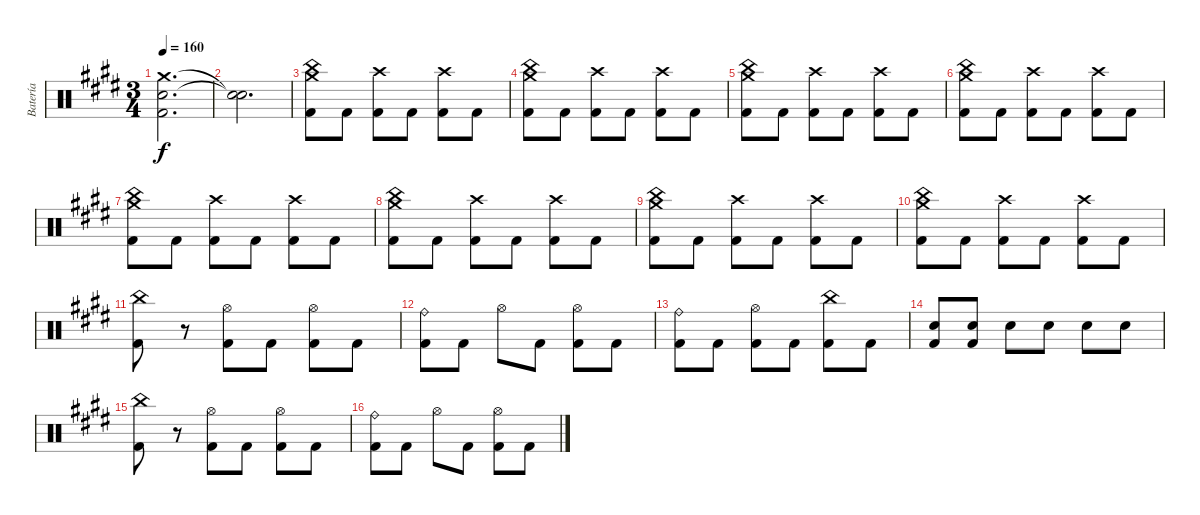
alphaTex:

\track ("Batería" "Batería") {instrument percussion}
\staff {score}
\articulation defaults
\ts (3 4)
\tempo 160
\clef neutral
\ks c#minor
("Crash medium (hit)"{t} "Snare (hit) 2"{t} "Kick (hit) 2"{t}).2{d dy f} |
("Snare (hit)"{t} "Snare (hit)"{t}).2{d} |
("Crash medium (hit)" "China (hit)" "Kick (hit) 2").8 "Kick (hit) 2".8 ("Crash high (hit)" "Kick (hit) 2").8 "Kick (hit) 2".8 ("Crash high (hit)" "Kick (hit) 2").8 "Kick (hit) 2".8 |
("Crash medium (hit)" "China (hit)" "Kick (hit) 2").8 "Kick (hit) 2".8 ("Crash high (hit)" "Kick (hit) 2").8 "Kick (hit) 2".8 ("Crash high (hit)" "Kick (hit) 2").8 "Kick (hit) 2".8 |
("Crash medium (hit)" "China (hit)" "Kick (hit) 2").8 "Kick (hit) 2".8 ("Crash high (hit)" "Kick (hit) 2").8 "Kick (hit) 2".8 ("Crash high (hit)" "Kick (hit) 2").8 "Kick (hit) 2".8 |
("Crash medium (hit)" "China (hit)" "Kick (hit) 2").8 "Kick (hit) 2".8 ("Crash high (hit)" "Kick (hit) 2").8 "Kick (hit) 2".8 ("Crash high (hit)" "Kick (hit) 2").8 "Kick (hit) 2".8 |
("Crash medium (hit)" "China (hit)" "Kick (hit) 2").8 "Kick (hit) 2".8 ("Crash high (hit)" "Kick (hit) 2").8 "Kick (hit) 2".8 ("Crash high (hit)" "Kick (hit) 2").8 "Kick (hit) 2".8 |
("Crash medium (hit)" "China (hit)" "Kick (hit) 2").8 "Kick (hit) 2".8 ("Crash high (hit)" "Kick (hit) 2").8 "Kick (hit) 2".8 ("Crash high (hit)" "Kick (hit) 2").8 "Kick (hit) 2".8 |
("Crash medium (hit)" "China (hit)" "Kick (hit) 2").8 "Kick (hit) 2".8 ("Crash high (hit)" "Kick (hit) 2").8 "Kick (hit) 2".8 ("Crash high (hit)" "Kick (hit) 2").8 "Kick (hit) 2".8 |
("Crash medium (hit)" "China (hit)" "Kick (hit) 2").8 "Kick (hit) 2".8 ("Crash high (hit)" "Kick (hit) 2").8 "Kick (hit) 2".8 ("Crash high (hit)" "Kick (hit) 2").8 "Kick (hit) 2".8 |
("China (hit)" "Kick (hit) 2").8 r.8 ("Hi-Hat (open)" "Kick (hit) 2").8 "Kick (hit) 2".8 ("Hi-Hat (open)" "Kick (hit) 2").8 "Kick (hit) 2".8 |
("Ride (bell)" "Kick (hit) 2").8 "Kick (hit) 2".8 "Hi-Hat (open)".8 "Kick (hit) 2".8 ("Hi-Hat (open)" "Kick (hit) 2").8 "Kick (hit) 2".8 |
("Ride (bell)" "Kick (hit) 2").8 "Kick (hit) 2".8 ("Hi-Hat (open)" "Kick (hit) 2").8 "Kick (hit) 2".8 ("China (hit)" "Kick (hit) 2").8 "Kick (hit) 2".8 |
("Snare (hit) 2" "Kick (hit) 2").8 ("Snare (hit) 2" "Kick (hit) 2").8 "Snare (hit) 2".8 "Snare (hit) 2".8 "Snare (hit) 2".8 "Snare (hit) 2".8 |
("China (hit)" "Kick (hit) 2").8 r.8 ("Hi-Hat (open)" "Kick (hit) 2").8 "Kick (hit) 2".8 ("Hi-Hat (open)" "Kick (hit) 2").8 "Kick (hit) 2".8 |
("Ride (bell)" "Kick (hit) 2").8 "Kick (hit) 2".8 "Hi-Hat (open)".8 "Kick (hit) 2".8 ("Hi-Hat (open)" "Kick (hit) 2").8 "Kick (hit) 2".8
